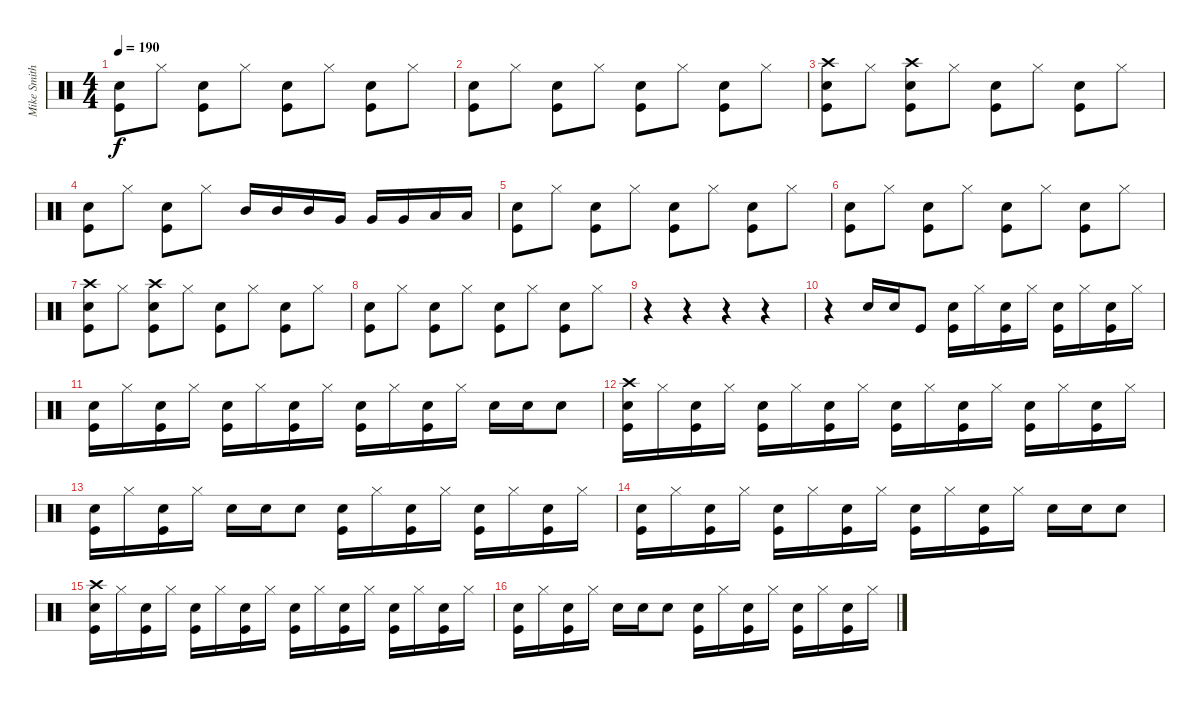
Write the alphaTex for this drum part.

\track ("Mike Smith" "Mike Smith") {instrument percussion}
\staff
\articulation defaults
\ts (4 4)
\tempo 190
\clef neutral
\ks c
("Snare (hit) 2" "Kick (hit)").8{dy f} "Hi-Hat (closed)".8 ("Snare (hit) 2" "Kick (hit)").8 "Hi-Hat (closed)".8 ("Snare (hit) 2" "Kick (hit)").8 "Hi-Hat (closed)".8 ("Snare (hit) 2" "Kick (hit)").8 "Hi-Hat (closed)".8 |
("Snare (hit) 2" "Kick (hit)").8 "Hi-Hat (closed)".8 ("Snare (hit) 2" "Kick (hit)").8 "Hi-Hat (closed)".8 ("Snare (hit) 2" "Kick (hit)").8 "Hi-Hat (closed)".8 ("Snare (hit) 2" "Kick (hit)").8 "Hi-Hat (closed)".8 |
("Crash high (hit)" "Snare (hit) 2" "Kick (hit)").8 "Hi-Hat (closed)".8 ("Crash high (hit)" "Snare (hit) 2" "Kick (hit)").8 "Hi-Hat (closed)".8 ("Snare (hit) 2" "Kick (hit)").8 "Hi-Hat (closed)".8 ("Snare (hit) 2" "Kick (hit)").8 "Hi-Hat (closed)".8 |
("Snare (hit) 2" "Kick (hit)").8 "Hi-Hat (closed)".8 ("Snare (hit) 2" "Kick (hit)").8 "Hi-Hat (closed)".8 "Mid Tom (hit)".16 "Mid Tom (hit)".16 "Mid Tom (hit)".16 "Very Low Tom (hit)".16 "Very Low Tom (hit)".16 "Very Low Tom (hit)".16 "Low Floor Tom (hit)".16 "Low Floor Tom (hit)".16 |
("Snare (hit) 2" "Kick (hit)").8 "Hi-Hat (closed)".8 ("Snare (hit) 2" "Kick (hit)").8 "Hi-Hat (closed)".8 ("Snare (hit) 2" "Kick (hit)").8 "Hi-Hat (closed)".8 ("Snare (hit) 2" "Kick (hit)").8 "Hi-Hat (closed)".8 |
("Snare (hit) 2" "Kick (hit)").8 "Hi-Hat (closed)".8 ("Snare (hit) 2" "Kick (hit)").8 "Hi-Hat (closed)".8 ("Snare (hit) 2" "Kick (hit)").8 "Hi-Hat (closed)".8 ("Snare (hit) 2" "Kick (hit)").8 "Hi-Hat (closed)".8 |
("Crash high (hit)" "Snare (hit) 2" "Kick (hit)").8 "Hi-Hat (closed)".8 ("Crash high (hit)" "Snare (hit) 2" "Kick (hit)").8 "Hi-Hat (closed)".8 ("Snare (hit) 2" "Kick (hit)").8 "Hi-Hat (closed)".8 ("Snare (hit) 2" "Kick (hit)").8 "Hi-Hat (closed)".8 |
("Snare (hit) 2" "Kick (hit)").8 "Hi-Hat (closed)".8 ("Snare (hit) 2" "Kick (hit)").8 "Hi-Hat (closed)".8 ("Snare (hit) 2" "Kick (hit)").8 "Hi-Hat (closed)".8 ("Snare (hit) 2" "Kick (hit)").8 "Hi-Hat (closed)".8 |
r.4 r.4 r.4 r.4 |
r.4 "Snare (hit) 2".16 "Snare (hit) 2".16 "Kick (hit)".8 ("Snare (hit) 2" "Kick (hit)").16 "Hi-Hat (closed)".16 ("Snare (hit) 2" "Kick (hit)").16 "Hi-Hat (closed)".16 ("Snare (hit) 2" "Kick (hit)").16 "Hi-Hat (closed)".16 ("Snare (hit) 2" "Kick (hit)").16 "Hi-Hat (closed)".16 |
("Snare (hit) 2" "Kick (hit)").16 "Hi-Hat (closed)".16 ("Snare (hit) 2" "Kick (hit)").16 "Hi-Hat (closed)".16 ("Snare (hit) 2" "Kick (hit)").16 "Hi-Hat (closed)".16 ("Snare (hit) 2" "Kick (hit)").16 "Hi-Hat (closed)".16 ("Snare (hit) 2" "Kick (hit)").16 "Hi-Hat (closed)".16 ("Snare (hit) 2" "Kick (hit)").16 "Hi-Hat (closed)".16 "Snare (hit) 2".16 "Snare (hit) 2".16 "Snare (hit) 2".8 |
("Crash high (hit)" "Snare (hit) 2" "Kick (hit)").16 "Hi-Hat (closed)".16 ("Snare (hit) 2" "Kick (hit)").16 "Hi-Hat (closed)".16 ("Snare (hit) 2" "Kick (hit)").16 "Hi-Hat (closed)".16 ("Snare (hit) 2" "Kick (hit)").16 "Hi-Hat (closed)".16 ("Snare (hit) 2" "Kick (hit)").16 "Hi-Hat (closed)".16 ("Snare (hit) 2" "Kick (hit)").16 "Hi-Hat (closed)".16 ("Snare (hit) 2" "Kick (hit)").16 "Hi-Hat (closed)".16 ("Snare (hit) 2" "Kick (hit)").16 "Hi-Hat (closed)".16 |
("Snare (hit) 2" "Kick (hit)").16 "Hi-Hat (closed)".16 ("Snare (hit) 2" "Kick (hit)").16 "Hi-Hat (closed)".16 "Snare (hit) 2".16 "Snare (hit) 2".16 "Snare (hit) 2".8 ("Snare (hit) 2" "Kick (hit)").16 "Hi-Hat (closed)".16 ("Snare (hit) 2" "Kick (hit)").16 "Hi-Hat (closed)".16 ("Snare (hit) 2" "Kick (hit)").16 "Hi-Hat (closed)".16 ("Snare (hit) 2" "Kick (hit)").16 "Hi-Hat (closed)".16 |
("Snare (hit) 2" "Kick (hit)").16 "Hi-Hat (closed)".16 ("Snare (hit) 2" "Kick (hit)").16 "Hi-Hat (closed)".16 ("Snare (hit) 2" "Kick (hit)").16 "Hi-Hat (closed)".16 ("Snare (hit) 2" "Kick (hit)").16 "Hi-Hat (closed)".16 ("Snare (hit) 2" "Kick (hit)").16 "Hi-Hat (closed)".16 ("Snare (hit) 2" "Kick (hit)").16 "Hi-Hat (closed)".16 "Snare (hit) 2".16 "Snare (hit) 2".16 "Snare (hit) 2".8 |
("Crash high (hit)" "Snare (hit) 2" "Kick (hit)").16 "Hi-Hat (closed)".16 ("Snare (hit) 2" "Kick (hit)").16 "Hi-Hat (closed)".16 ("Snare (hit) 2" "Kick (hit)").16 "Hi-Hat (closed)".16 ("Snare (hit) 2" "Kick (hit)").16 "Hi-Hat (closed)".16 ("Snare (hit) 2" "Kick (hit)").16 "Hi-Hat (closed)".16 ("Snare (hit) 2" "Kick (hit)").16 "Hi-Hat (closed)".16 ("Snare (hit) 2" "Kick (hit)").16 "Hi-Hat (closed)".16 ("Snare (hit) 2" "Kick (hit)").16 "Hi-Hat (closed)".16 |
("Snare (hit) 2" "Kick (hit)").16 "Hi-Hat (closed)".16 ("Snare (hit) 2" "Kick (hit)").16 "Hi-Hat (closed)".16 "Snare (hit) 2".16 "Snare (hit) 2".16 "Snare (hit) 2".8 ("Snare (hit) 2" "Kick (hit)").16 "Hi-Hat (closed)".16 ("Snare (hit) 2" "Kick (hit)").16 "Hi-Hat (closed)".16 ("Snare (hit) 2" "Kick (hit)").16 "Hi-Hat (closed)".16 ("Snare (hit) 2" "Kick (hit)").16 "Hi-Hat (closed)".16
